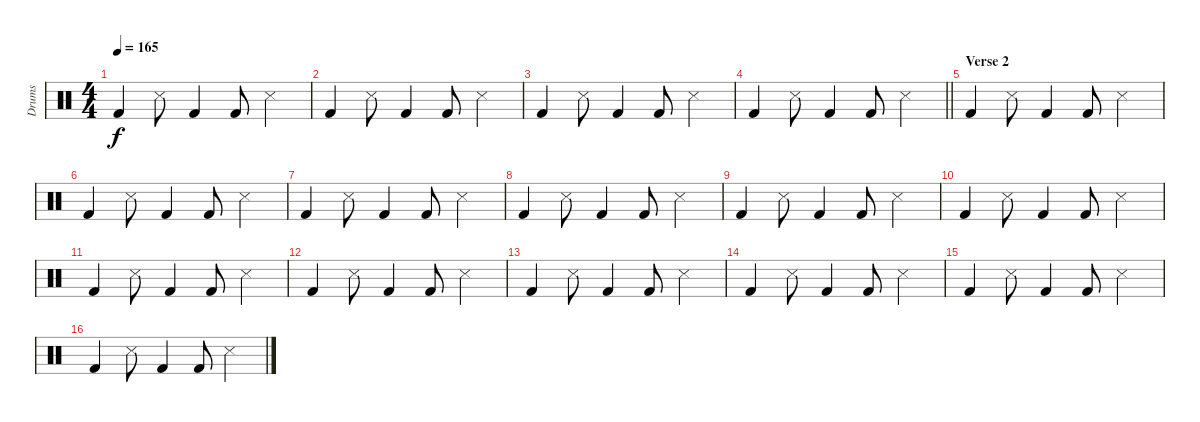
\track ("Drums" "Drums") {instrument percussion}
\staff {score}
\articulation defaults
\ts (4 4)
\tempo 165
\clef neutral
\ks c "Kick (hit) 2".4{dy f} "Snare (side stick) 3".8 "Kick (hit) 2".4 "Kick (hit) 2".8 "Snare (side stick) 3".4
|
"Kick (hit) 2".4 "Snare (side stick) 3".8 "Kick (hit) 2".4 "Kick (hit) 2".8 "Snare (side stick) 3".4 |
"Kick (hit) 2".4 "Snare (side stick) 3".8 "Kick (hit) 2".4 "Kick (hit) 2".8 "Snare (side stick) 3".4 |
\barLineRight lightlight "Kick (hit) 2".4 "Snare (side stick) 3".8 "Kick (hit) 2".4 "Kick (hit) 2".8 "Snare (side stick) 3".4
|
\section ("" "Verse 2")
"Kick (hit) 2".4 "Snare (side stick) 3".8 "Kick (hit) 2".4 "Kick (hit) 2".8 "Snare (side stick) 3".4 |
"Kick (hit) 2".4 "Snare (side stick) 3".8 "Kick (hit) 2".4 "Kick (hit) 2".8 "Snare (side stick) 3".4 |
"Kick (hit) 2".4 "Snare (side stick) 3".8 "Kick (hit) 2".4 "Kick (hit) 2".8 "Snare (side stick) 3".4 |
"Kick (hit) 2".4 "Snare (side stick) 3".8 "Kick (hit) 2".4 "Kick (hit) 2".8 "Snare (side stick) 3".4 |
"Kick (hit) 2".4 "Snare (side stick) 3".8 "Kick (hit) 2".4 "Kick (hit) 2".8 "Snare (side stick) 3".4 |
"Kick (hit) 2".4 "Snare (side stick) 3".8 "Kick (hit) 2".4 "Kick (hit) 2".8 "Snare (side stick) 3".4 |
"Kick (hit) 2".4 "Snare (side stick) 3".8 "Kick (hit) 2".4 "Kick (hit) 2".8 "Snare (side stick) 3".4 |
"Kick (hit) 2".4 "Snare (side stick) 3".8 "Kick (hit) 2".4 "Kick (hit) 2".8 "Snare (side stick) 3".4 |
"Kick (hit) 2".4 "Snare (side stick) 3".8 "Kick (hit) 2".4 "Kick (hit) 2".8 "Snare (side stick) 3".4 |
"Kick (hit) 2".4 "Snare (side stick) 3".8 "Kick (hit) 2".4 "Kick (hit) 2".8 "Snare (side stick) 3".4 |
"Kick (hit) 2".4 "Snare (side stick) 3".8 "Kick (hit) 2".4 "Kick (hit) 2".8 "Snare (side stick) 3".4 |
"Kick (hit) 2".4 "Snare (side stick) 3".8 "Kick (hit) 2".4 "Kick (hit) 2".8 "Snare (side stick) 3".4
